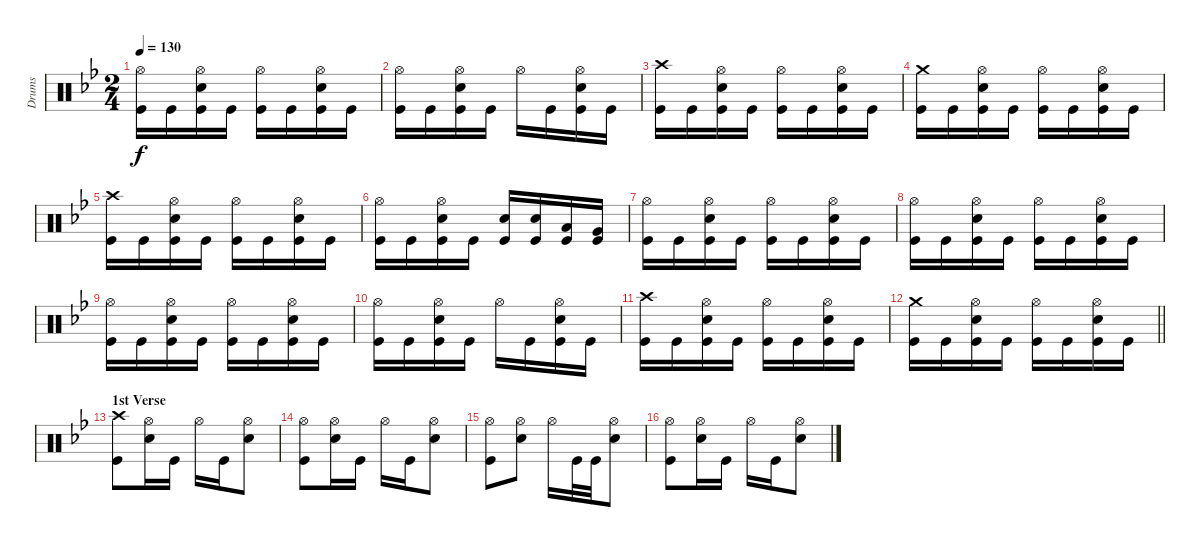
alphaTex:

\track ("Drums" "Drums") {instrument percussion}
\staff {score}
\articulation defaults
\ts (2 4)
\tempo 130
\clef neutral
\ks gminor
("Kick (hit)" "Hi-Hat (open)").16{dy f} "Kick (hit)".16 ("Kick (hit)" "Snare (hit) 2" "Hi-Hat (open)").16 "Kick (hit)".16 ("Kick (hit)" "Hi-Hat (open)").16 "Kick (hit)".16 ("Kick (hit)" "Snare (hit) 2" "Hi-Hat (open)").16 "Kick (hit)".16 |
("Kick (hit)" "Hi-Hat (open)").16 "Kick (hit)".16 ("Kick (hit)" "Snare (hit) 2" "Hi-Hat (open)").16 "Kick (hit)".16 "Hi-Hat (open)".16 "Kick (hit)".16 ("Kick (hit)" "Snare (hit) 2" "Hi-Hat (open)").16 "Kick (hit)".16 |
("Kick (hit)" "Crash high (hit)").16 "Kick (hit)".16 ("Kick (hit)" "Hi-Hat (open)" "Snare (hit) 2").16 "Kick (hit)".16 ("Kick (hit)" "Hi-Hat (open)").16 "Kick (hit)".16 ("Kick (hit)" "Hi-Hat (open)" "Snare (hit) 2").16 "Kick (hit)".16 |
("Kick (hit)" "Crash medium (hit)").16 "Kick (hit)".16 ("Kick (hit)" "Hi-Hat (open)" "Snare (hit) 2").16 "Kick (hit)".16 ("Kick (hit)" "Hi-Hat (open)").16 "Kick (hit)".16 ("Kick (hit)" "Hi-Hat (open)" "Snare (hit) 2").16 "Kick (hit)".16 |
("Kick (hit)" "Crash high (hit)").16 "Kick (hit)".16 ("Kick (hit)" "Hi-Hat (open)" "Snare (hit) 2").16 "Kick (hit)".16 ("Kick (hit)" "Hi-Hat (open)").16 "Kick (hit)".16 ("Kick (hit)" "Hi-Hat (open)" "Snare (hit) 2").16 "Kick (hit)".16 |
("Kick (hit)" "Hi-Hat (open)").16 "Kick (hit)".16 ("Kick (hit)" "Hi-Hat (open)" "Snare (hit) 2").16 "Kick (hit)".16 ("Kick (hit)" "Snare (hit) 2").16 ("Kick (hit)" "Snare (hit) 2").16 ("Kick (hit)" "Low Tom (hit)").16 ("Kick (hit)" "Very Low Tom (hit)").16 |
("Kick (hit)" "Hi-Hat (open)").16 "Kick (hit)".16 ("Kick (hit)" "Snare (hit) 2" "Hi-Hat (open)").16 "Kick (hit)".16 ("Kick (hit)" "Hi-Hat (open)").16 "Kick (hit)".16 ("Kick (hit)" "Snare (hit) 2" "Hi-Hat (open)").16 "Kick (hit)".16 |
("Kick (hit)" "Hi-Hat (open)").16 "Kick (hit)".16 ("Kick (hit)" "Snare (hit) 2" "Hi-Hat (open)").16 "Kick (hit)".16 ("Kick (hit)" "Hi-Hat (open)").16 "Kick (hit)".16 ("Kick (hit)" "Snare (hit) 2" "Hi-Hat (open)").16 "Kick (hit)".16 |
("Kick (hit)" "Hi-Hat (open)").16 "Kick (hit)".16 ("Kick (hit)" "Snare (hit) 2" "Hi-Hat (open)").16 "Kick (hit)".16 ("Kick (hit)" "Hi-Hat (open)").16 "Kick (hit)".16 ("Kick (hit)" "Snare (hit) 2" "Hi-Hat (open)").16 "Kick (hit)".16 |
("Kick (hit)" "Hi-Hat (open)").16 "Kick (hit)".16 ("Kick (hit)" "Snare (hit) 2" "Hi-Hat (open)").16 "Kick (hit)".16 "Hi-Hat (open)".16 "Kick (hit)".16 ("Kick (hit)" "Snare (hit) 2" "Hi-Hat (open)").16 "Kick (hit)".16 |
("Kick (hit)" "Crash high (hit)").16 "Kick (hit)".16 ("Kick (hit)" "Hi-Hat (open)" "Snare (hit) 2").16 "Kick (hit)".16 ("Kick (hit)" "Hi-Hat (open)").16 "Kick (hit)".16 ("Kick (hit)" "Hi-Hat (open)" "Snare (hit) 2").16 "Kick (hit)".16 |
\barLineRight lightlight
("Kick (hit)" "Crash medium (hit)").16 "Kick (hit)".16 ("Kick (hit)" "Hi-Hat (open)" "Snare (hit) 2").16 "Kick (hit)".16 ("Kick (hit)" "Hi-Hat (open)").16 "Kick (hit)".16 ("Kick (hit)" "Hi-Hat (open)" "Snare (hit) 2").16 "Kick (hit)".16 |
\section ("" "1st Verse")
("Kick (hit)" "Crash high (hit)").8 ("Hi-Hat (open)" "Snare (hit) 2").16 "Kick (hit)".16 "Hi-Hat (open)".16 "Kick (hit)".16 ("Hi-Hat (open)" "Snare (hit) 2").8 |
("Kick (hit)" "Hi-Hat (open)").8 ("Hi-Hat (open)" "Snare (hit) 2").16 "Kick (hit)".16 "Hi-Hat (open)".16 "Kick (hit)".16 ("Hi-Hat (open)" "Snare (hit) 2").8 |
("Kick (hit)" "Hi-Hat (open)").8 ("Hi-Hat (open)" "Snare (hit) 2").8 "Hi-Hat (open)".16 "Kick (hit)".32 "Kick (hit)".32 ("Hi-Hat (open)" "Snare (hit) 2").8 |
("Kick (hit)" "Hi-Hat (open)").8 ("Hi-Hat (open)" "Snare (hit) 2").16 "Kick (hit)".16 "Hi-Hat (open)".16 "Kick (hit)".16 ("Hi-Hat (open)" "Snare (hit) 2").8
